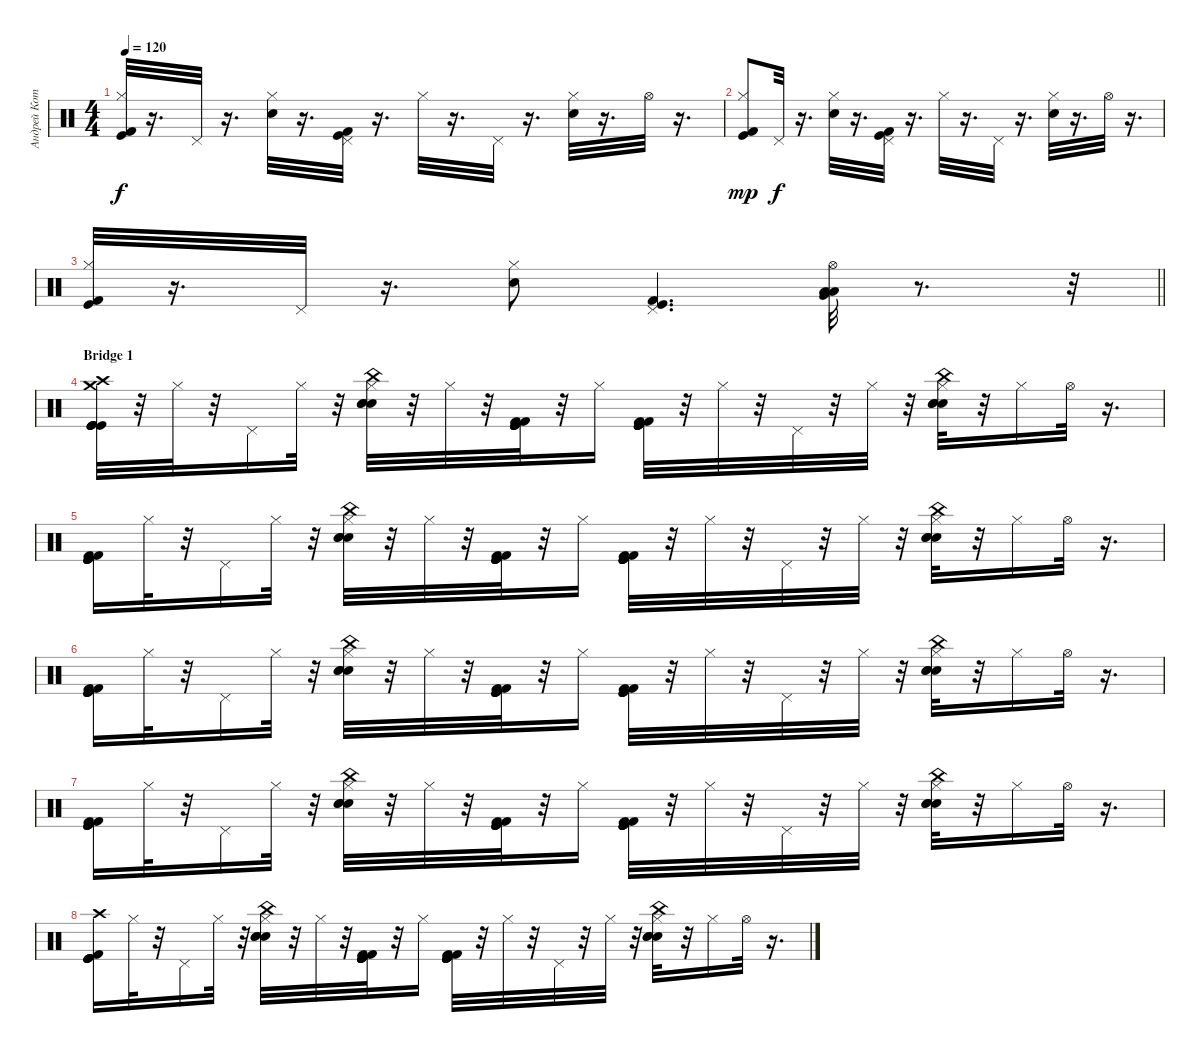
\track ("Андрей Котов " "Андрей Кот") {instrument percussion}
\staff {score}
\articulation defaults
\ts (4 4)
\tempo 120
\clef neutral
\ks c
("Kick (hit)" "Hi-Hat (closed)" "Kick (hit) 2").32{dy f} r.16{d} "Pedal Hi-Hat (hit)".32 r.16{d} ("Hi-Hat (closed)" "Snare (hit) 2").32 r.16{d} ("Kick (hit)" "Pedal Hi-Hat (hit)" "Kick (hit) 2").32 r.16{d} "Hi-Hat (closed)".32 r.16{d} "Pedal Hi-Hat (hit)".32 r.16{d} ("Hi-Hat (closed)" "Snare (hit) 2").32 r.16{d} "Hi-Hat (open)".32 r.16{d} |
("Kick (hit)" "Hi-Hat (closed)" "Kick (hit) 2").8{dy mp} "Pedal Hi-Hat (hit)".32{dy f} r.16{d} ("Hi-Hat (closed)" "Snare (hit) 2").32 r.16{d} ("Kick (hit)" "Pedal Hi-Hat (hit)" "Kick (hit) 2").32 r.16{d} "Hi-Hat (closed)".32 r.16{d} "Pedal Hi-Hat (hit)".32 r.16{d} ("Hi-Hat (closed)" "Snare (hit) 2").32 r.16{d} "Hi-Hat (open)".32 r.16{d} |
\barLineRight lightlight
("Kick (hit)" "Hi-Hat (closed)" "Kick (hit) 2").32 r.16{d} "Pedal Hi-Hat (hit)".32 r.16{d} ("Hi-Hat (closed)" "Snare (hit) 2").8 ("Pedal Hi-Hat (hit)" "Kick (hit)" "Kick (hit) 2").4{d} ("Very Low Tom (hit)" "Low Tom (hit)" "Hi-Hat (open)" "Low Floor Tom (hit)").32 r.8{d} r.32 |
\section ("" "Bridge 1")
("Crash medium (hit)" "Crash high (hit)" "Kick (hit)" "Kick (hit)" "Kick (hit)" "Kick (hit)").32 r.32 "Hi-Hat (closed)".32 r.32 "Pedal Hi-Hat (hit)".16 "Hi-Hat (closed)".32 r.32 ("China (hit)" "Electric Snare (hit)" "Hand Clap (hit)" "Hi-Hat (closed)" "Snare (hit) 2").32 r.32 "Hi-Hat (closed)".32 r.32 ("Kick (hit)" "Kick (hit)" "Kick (hit)" "Kick (hit)" "Kick (hit) 2" "Kick (hit) 2").32 r.32 "Hi-Hat (closed)".16 ("Kick (hit)" "Kick (hit)" "Kick (hit)" "Kick (hit)" "Kick (hit) 2" "Kick (hit) 2").32 r.32 "Hi-Hat (closed)".32 r.32 "Pedal Hi-Hat (hit)".32 r.32 "Hi-Hat (closed)".32 r.32 ("China (hit)" "Electric Snare (hit)" "Hand Clap (hit)" "Hi-Hat (closed)" "Snare (hit) 2").32 r.32 "Hi-Hat (closed)".16 "Hi-Hat (open)".32 r.16{d} |
("Kick (hit)" "Kick (hit)" "Kick (hit)" "Kick (hit)" "Kick (hit) 2" "Kick (hit) 2").16 "Hi-Hat (closed)".32 r.32 "Pedal Hi-Hat (hit)".16 "Hi-Hat (closed)".32 r.32 ("China (hit)" "Electric Snare (hit)" "Hand Clap (hit)" "Hi-Hat (closed)" "Snare (hit) 2").32 r.32 "Hi-Hat (closed)".32 r.32 ("Kick (hit)" "Kick (hit)" "Kick (hit)" "Kick (hit)" "Kick (hit) 2" "Kick (hit) 2").32 r.32 "Hi-Hat (closed)".16 ("Kick (hit)" "Kick (hit)" "Kick (hit)" "Kick (hit)" "Kick (hit) 2" "Kick (hit) 2").32 r.32 "Hi-Hat (closed)".32 r.32 "Pedal Hi-Hat (hit)".32 r.32 "Hi-Hat (closed)".32 r.32 ("China (hit)" "Electric Snare (hit)" "Hand Clap (hit)" "Hi-Hat (closed)" "Snare (hit) 2").32 r.32 "Hi-Hat (closed)".16 "Hi-Hat (open)".32 r.16{d} |
("Kick (hit)" "Kick (hit)" "Kick (hit)" "Kick (hit)" "Kick (hit) 2" "Kick (hit) 2").16 "Hi-Hat (closed)".32 r.32 "Pedal Hi-Hat (hit)".16 "Hi-Hat (closed)".32 r.32 ("China (hit)" "Electric Snare (hit)" "Hand Clap (hit)" "Hi-Hat (closed)" "Snare (hit) 2").32 r.32 "Hi-Hat (closed)".32 r.32 ("Kick (hit)" "Kick (hit)" "Kick (hit)" "Kick (hit)" "Kick (hit) 2" "Kick (hit) 2").32 r.32 "Hi-Hat (closed)".16 ("Kick (hit)" "Kick (hit)" "Kick (hit)" "Kick (hit)" "Kick (hit) 2" "Kick (hit) 2").32 r.32 "Hi-Hat (closed)".32 r.32 "Pedal Hi-Hat (hit)".32 r.32 "Hi-Hat (closed)".32 r.32 ("China (hit)" "Electric Snare (hit)" "Hand Clap (hit)" "Hi-Hat (closed)" "Snare (hit) 2").32 r.32 "Hi-Hat (closed)".16 "Hi-Hat (open)".32 r.16{d} |
("Kick (hit)" "Kick (hit)" "Kick (hit)" "Kick (hit)" "Kick (hit) 2" "Kick (hit) 2").16 "Hi-Hat (closed)".32 r.32 "Pedal Hi-Hat (hit)".16 "Hi-Hat (closed)".32 r.32 ("China (hit)" "Electric Snare (hit)" "Hand Clap (hit)" "Hi-Hat (closed)" "Snare (hit) 2").32 r.32 "Hi-Hat (closed)".32 r.32 ("Kick (hit)" "Kick (hit)" "Kick (hit)" "Kick (hit)" "Kick (hit) 2" "Kick (hit) 2").32 r.32 "Hi-Hat (closed)".16 ("Kick (hit)" "Kick (hit)" "Kick (hit)" "Kick (hit)" "Kick (hit) 2" "Kick (hit) 2").32 r.32 "Hi-Hat (closed)".32 r.32 "Pedal Hi-Hat (hit)".32 r.32 "Hi-Hat (closed)".32 r.32 ("China (hit)" "Electric Snare (hit)" "Hand Clap (hit)" "Hi-Hat (closed)" "Snare (hit) 2").32 r.32 "Hi-Hat (closed)".16 "Hi-Hat (open)".32 r.16{d} |
("Crash high (hit)" "Kick (hit)" "Kick (hit)" "Kick (hit)" "Kick (hit)" "Kick (hit) 2").16 "Hi-Hat (closed)".32 r.32 "Pedal Hi-Hat (hit)".16 "Hi-Hat (closed)".32 r.32 ("China (hit)" "Electric Snare (hit)" "Hand Clap (hit)" "Hi-Hat (closed)" "Snare (hit) 2").32 r.32 "Hi-Hat (closed)".32 r.32 ("Kick (hit)" "Kick (hit)" "Kick (hit)" "Kick (hit)" "Kick (hit) 2" "Kick (hit) 2").32 r.32 "Hi-Hat (closed)".16 ("Kick (hit)" "Kick (hit)" "Kick (hit)" "Kick (hit)" "Kick (hit) 2" "Kick (hit) 2").32 r.32 "Hi-Hat (closed)".32 r.32 "Pedal Hi-Hat (hit)".32 r.32 "Hi-Hat (closed)".32 r.32 ("China (hit)" "Electric Snare (hit)" "Hand Clap (hit)" "Hi-Hat (closed)" "Snare (hit) 2").32 r.32 "Hi-Hat (closed)".16 "Hi-Hat (open)".32 r.16{d}
